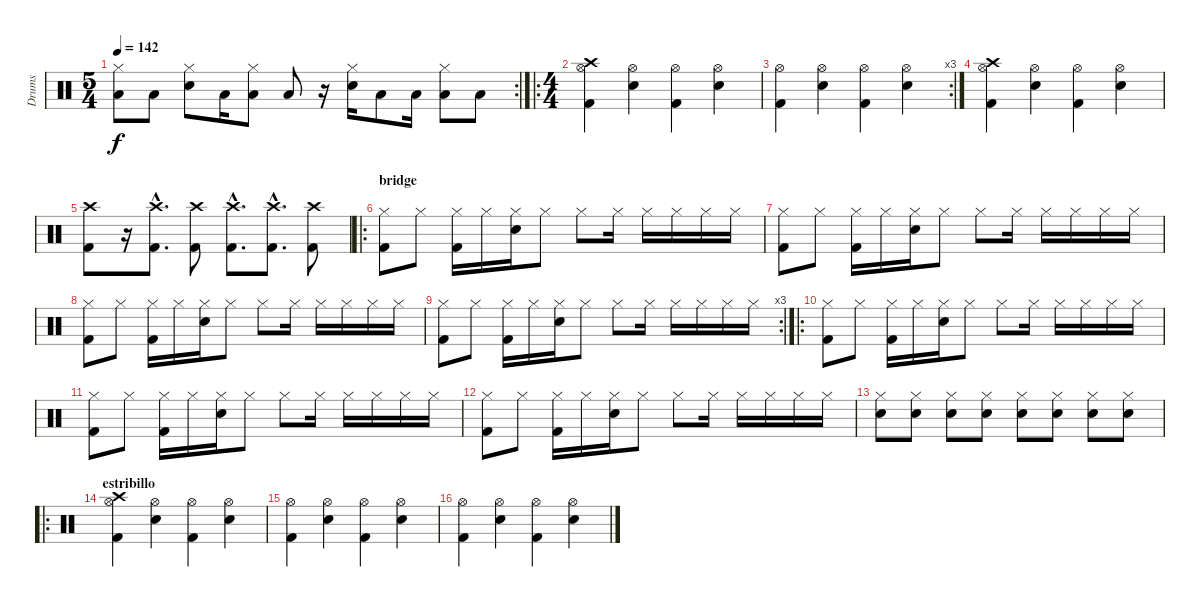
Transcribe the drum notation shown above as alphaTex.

\track ("Drums" "Drums") {instrument percussion}
\staff {score}
\articulation defaults
\rc 2
\ts (5 4)
\tempo 142
\clef neutral
\ks c
("Low Tom (hit)" "Hi-Hat (closed)").8{dy f} "Low Tom (hit)".8 ("Snare (hit) 2" "Hi-Hat (closed)").8 "Low Tom (hit)".16 ("Low Tom (hit)" "Hi-Hat (closed)").8 "Low Tom (hit)".8 r.16 ("Snare (hit) 2" "Hi-Hat (closed)").16 "Low Tom (hit)".8 "Low Tom (hit)".16 ("Low Tom (hit)" "Hi-Hat (closed)").8 "Low Tom (hit)".8 |
\ro
\ts (4 4)
("Kick (hit) 2" "Hi-Hat (open)" "Crash high (hit)").4 ("Snare (hit) 2" "Hi-Hat (open)").4 ("Kick (hit) 2" "Hi-Hat (open)").4 ("Snare (hit) 2" "Hi-Hat (open)").4 |
\rc 3
("Kick (hit) 2" "Hi-Hat (open)").4 ("Snare (hit) 2" "Hi-Hat (open)").4 ("Kick (hit) 2" "Hi-Hat (open)").4 ("Snare (hit) 2" "Hi-Hat (open)").4 |
("Kick (hit) 2" "Hi-Hat (open)" "Crash high (hit)").4 ("Snare (hit) 2" "Hi-Hat (open)").4 ("Kick (hit) 2" "Hi-Hat (open)").4 ("Snare (hit) 2" "Hi-Hat (open)").4 |
("Kick (hit) 2" "Crash high (hit)").8 r.16 ("Kick (hit) 2"{hac} "Crash high (hit)"{hac}).8{d} ("Kick (hit) 2" "Crash high (hit)").8 ("Kick (hit) 2"{hac} "Crash high (hit)"{hac}).8{d} ("Kick (hit) 2"{hac} "Crash high (hit)"{hac}).8{d} ("Kick (hit) 2" "Crash high (hit)").8 |
\ro
\section ("" "bridge")
("Kick (hit) 2" "Hi-Hat (closed)").8 "Hi-Hat (closed)".8 ("Kick (hit) 2" "Hi-Hat (closed)").16 "Hi-Hat (closed)".16 ("Snare (hit) 2" "Hi-Hat (closed)").16 "Hi-Hat (closed)".8 "Hi-Hat (closed)".8 "Hi-Hat (closed)".16 "Hi-Hat (closed)".16 "Hi-Hat (closed)".16 "Hi-Hat (closed)".16 "Hi-Hat (closed)".16 |
("Kick (hit) 2" "Hi-Hat (closed)").8 "Hi-Hat (closed)".8 ("Kick (hit) 2" "Hi-Hat (closed)").16 "Hi-Hat (closed)".16 ("Snare (hit) 2" "Hi-Hat (closed)").16 "Hi-Hat (closed)".8 "Hi-Hat (closed)".8 "Hi-Hat (closed)".16 "Hi-Hat (closed)".16 "Hi-Hat (closed)".16 "Hi-Hat (closed)".16 "Hi-Hat (closed)".16 |
("Kick (hit) 2" "Hi-Hat (closed)").8 "Hi-Hat (closed)".8 ("Kick (hit) 2" "Hi-Hat (closed)").16 "Hi-Hat (closed)".16 ("Snare (hit) 2" "Hi-Hat (closed)").16 "Hi-Hat (closed)".8 "Hi-Hat (closed)".8 "Hi-Hat (closed)".16 "Hi-Hat (closed)".16 "Hi-Hat (closed)".16 "Hi-Hat (closed)".16 "Hi-Hat (closed)".16 |
\rc 3
("Kick (hit) 2" "Hi-Hat (closed)").8 "Hi-Hat (closed)".8 ("Kick (hit) 2" "Hi-Hat (closed)").16 "Hi-Hat (closed)".16 ("Snare (hit) 2" "Hi-Hat (closed)").16 "Hi-Hat (closed)".8 "Hi-Hat (closed)".8 "Hi-Hat (closed)".16 "Hi-Hat (closed)".16 "Hi-Hat (closed)".16 "Hi-Hat (closed)".16 "Hi-Hat (closed)".16 |
\ro
("Kick (hit) 2" "Hi-Hat (closed)").8 "Hi-Hat (closed)".8 ("Kick (hit) 2" "Hi-Hat (closed)").16 "Hi-Hat (closed)".16 ("Snare (hit) 2" "Hi-Hat (closed)").16 "Hi-Hat (closed)".8 "Hi-Hat (closed)".8 "Hi-Hat (closed)".16 "Hi-Hat (closed)".16 "Hi-Hat (closed)".16 "Hi-Hat (closed)".16 "Hi-Hat (closed)".16 |
("Kick (hit) 2" "Hi-Hat (closed)").8 "Hi-Hat (closed)".8 ("Kick (hit) 2" "Hi-Hat (closed)").16 "Hi-Hat (closed)".16 ("Snare (hit) 2" "Hi-Hat (closed)").16 "Hi-Hat (closed)".8 "Hi-Hat (closed)".8 "Hi-Hat (closed)".16 "Hi-Hat (closed)".16 "Hi-Hat (closed)".16 "Hi-Hat (closed)".16 "Hi-Hat (closed)".16 |
("Kick (hit) 2" "Hi-Hat (closed)").8 "Hi-Hat (closed)".8 ("Kick (hit) 2" "Hi-Hat (closed)").16 "Hi-Hat (closed)".16 ("Snare (hit) 2" "Hi-Hat (closed)").16 "Hi-Hat (closed)".8 "Hi-Hat (closed)".8 "Hi-Hat (closed)".16 "Hi-Hat (closed)".16 "Hi-Hat (closed)".16 "Hi-Hat (closed)".16 "Hi-Hat (closed)".16 |
("Snare (hit) 2" "Hi-Hat (closed)").8 ("Snare (hit) 2" "Hi-Hat (closed)").8 ("Snare (hit) 2" "Hi-Hat (closed)").8 ("Snare (hit) 2" "Hi-Hat (closed)").8 ("Snare (hit) 2" "Hi-Hat (closed)").8 ("Snare (hit) 2" "Hi-Hat (closed)").8 ("Snare (hit) 2" "Hi-Hat (closed)").8 ("Snare (hit) 2" "Hi-Hat (closed)").8 |
\ro
\section ("" "estribillo")
("Kick (hit) 2" "Hi-Hat (open)" "Crash high (hit)").4 ("Snare (hit) 2" "Hi-Hat (open)").4 ("Kick (hit) 2" "Hi-Hat (open)").4 ("Snare (hit) 2" "Hi-Hat (open)").4 |
("Kick (hit) 2" "Hi-Hat (open)").4 ("Snare (hit) 2" "Hi-Hat (open)").4 ("Kick (hit) 2" "Hi-Hat (open)").4 ("Snare (hit) 2" "Hi-Hat (open)").4 |
("Kick (hit) 2" "Hi-Hat (open)").4 ("Snare (hit) 2" "Hi-Hat (open)").4 ("Kick (hit) 2" "Hi-Hat (open)").4 ("Snare (hit) 2" "Hi-Hat (open)").4
